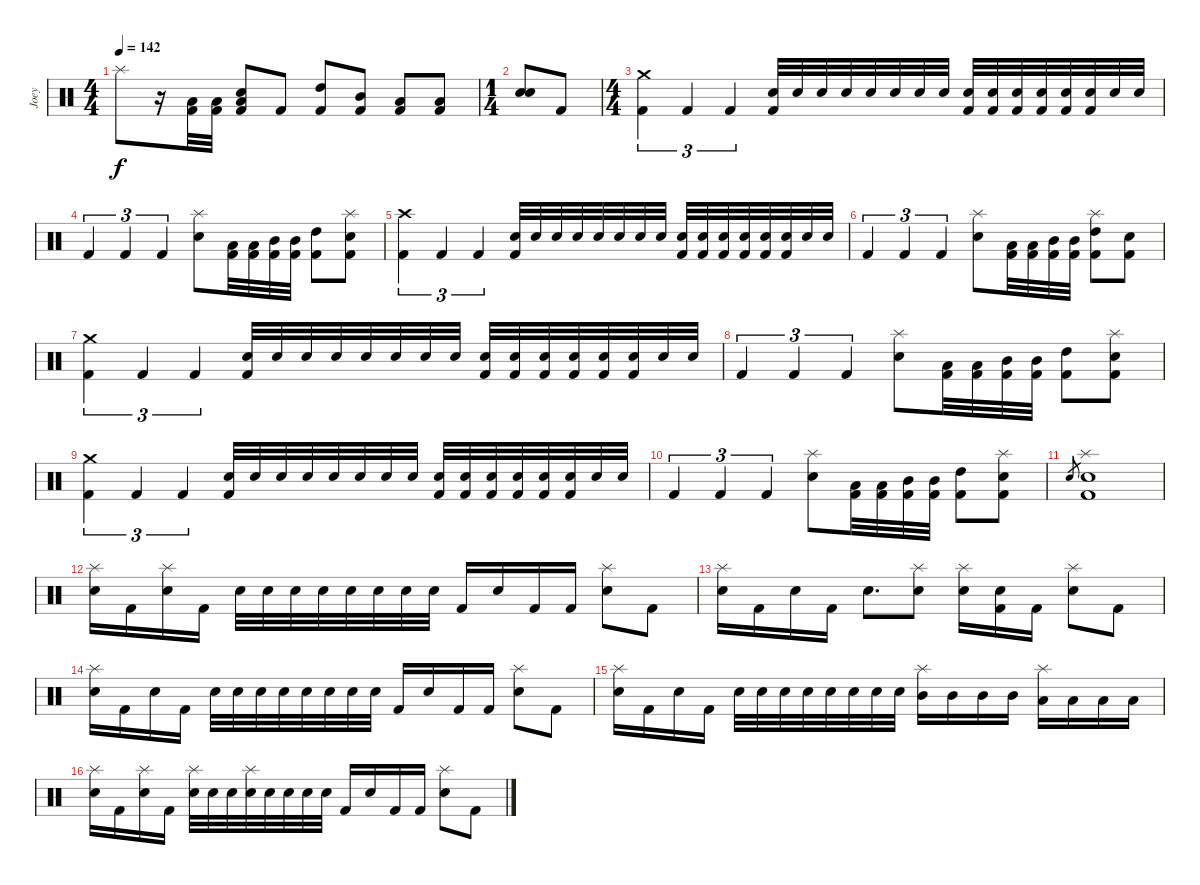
\track ("Joey" "Joey") {instrument percussion}
\staff {score}
\articulation defaults
\ts (4 4)
\tempo 142
\clef neutral
\ks c "Splash (hit)".8{dy f}
r.16 ("Low Tom (hit)" "Kick (hit) 2").32 ("Low Tom (hit)" "Kick (hit) 2").32 ("Snare (hit) 2" "Low Tom (hit)" "Kick (hit) 2").8 "Kick (hit) 2".8 ("High Tom (hit)" "Kick (hit) 2").8 ("Mid Tom (hit)" "Kick (hit) 2").8 ("Low Tom (hit)" "Kick (hit) 2").8 ("Low Tom (hit)" "Kick (hit) 2").8 |
\ts (1 4)
("Snare (hit) 2" "Snare (hit) 2").8 "Kick (hit) 2".8 |
\ts (4 4)
("Crash medium (hit)" "Kick (hit) 2").4{tu (3 2)} "Kick (hit) 2".4{tu (3 2)} "Kick (hit) 2".4{tu (3 2)} ("Snare (hit) 2" "Kick (hit) 2").32{volume 8} "Snare (hit) 2".32 "Snare (hit) 2".32 "Snare (hit) 2".32 "Snare (hit) 2".32 "Snare (hit) 2".32 "Snare (hit) 2".32 "Snare (hit) 2".32 ("Snare (hit) 2" "Kick (hit) 2").32 ("Snare (hit) 2" "Kick (hit) 2").32 ("Snare (hit) 2" "Kick (hit) 2").32 ("Snare (hit) 2" "Kick (hit) 2").32 ("Snare (hit) 2" "Kick (hit) 2").32 ("Snare (hit) 2" "Kick (hit) 2").32 "Snare (hit) 2".32 "Snare (hit) 2".32 |
"Kick (hit) 2".4{tu (3 2) volume 16} "Kick (hit) 2".4{tu (3 2)} "Kick (hit) 2".4{tu (3 2)} ("Splash (hit)" "Snare (hit) 2").8 ("Low Tom (hit)" "Kick (hit) 2").32 ("Low Tom (hit)" "Kick (hit) 2").32 ("Mid Tom (hit)" "Kick (hit) 2").32 ("Mid Tom (hit)" "Kick (hit) 2").32 ("High Tom (hit)" "Kick (hit) 2").8 ("Splash (hit)" "Snare (hit) 2" "Kick (hit) 2").8 |
("Crash high (hit)" "Kick (hit) 2").4{tu (3 2)} "Kick (hit) 2".4{tu (3 2)} "Kick (hit) 2".4{tu (3 2)} ("Snare (hit) 2" "Kick (hit) 2").32{volume 8} "Snare (hit) 2".32 "Snare (hit) 2".32 "Snare (hit) 2".32 "Snare (hit) 2".32 "Snare (hit) 2".32 "Snare (hit) 2".32 "Snare (hit) 2".32 ("Snare (hit) 2" "Kick (hit) 2").32 ("Snare (hit) 2" "Kick (hit) 2").32 ("Snare (hit) 2" "Kick (hit) 2").32 ("Snare (hit) 2" "Kick (hit) 2").32 ("Snare (hit) 2" "Kick (hit) 2").32 ("Snare (hit) 2" "Kick (hit) 2").32 "Snare (hit) 2".32 "Snare (hit) 2".32 |
"Kick (hit) 2".4{tu (3 2) volume 16} "Kick (hit) 2".4{tu (3 2)} "Kick (hit) 2".4{tu (3 2)} ("Splash (hit)" "Snare (hit) 2").8 ("Low Tom (hit)" "Kick (hit) 2").32 ("Low Tom (hit)" "Kick (hit) 2").32 ("Mid Tom (hit)" "Kick (hit) 2").32 ("Mid Tom (hit)" "Kick (hit) 2").32 ("Splash (hit)" "High Tom (hit)" "Kick (hit) 2").8 ("Snare (hit) 2" "Kick (hit) 2").8 |
("Crash medium (hit)" "Kick (hit) 2").4{tu (3 2)} "Kick (hit) 2".4{tu (3 2)} "Kick (hit) 2".4{tu (3 2)} ("Snare (hit) 2" "Kick (hit) 2").32{volume 8} "Snare (hit) 2".32 "Snare (hit) 2".32 "Snare (hit) 2".32 "Snare (hit) 2".32 "Snare (hit) 2".32 "Snare (hit) 2".32 "Snare (hit) 2".32 ("Snare (hit) 2" "Kick (hit) 2").32 ("Snare (hit) 2" "Kick (hit) 2").32 ("Snare (hit) 2" "Kick (hit) 2").32 ("Snare (hit) 2" "Kick (hit) 2").32 ("Snare (hit) 2" "Kick (hit) 2").32 ("Snare (hit) 2" "Kick (hit) 2").32 "Snare (hit) 2".32 "Snare (hit) 2".32 |
"Kick (hit) 2".4{tu (3 2) volume 16} "Kick (hit) 2".4{tu (3 2)} "Kick (hit) 2".4{tu (3 2)} ("Splash (hit)" "Snare (hit) 2").8 ("Low Tom (hit)" "Kick (hit) 2").32 ("Low Tom (hit)" "Kick (hit) 2").32 ("Mid Tom (hit)" "Kick (hit) 2").32 ("Mid Tom (hit)" "Kick (hit) 2").32 ("High Tom (hit)" "Kick (hit) 2").8 ("Splash (hit)" "Snare (hit) 2" "Kick (hit) 2").8 |
("Crash medium (hit)" "Kick (hit) 2").4{tu (3 2)} "Kick (hit) 2".4{tu (3 2)} "Kick (hit) 2".4{tu (3 2)} ("Snare (hit) 2" "Kick (hit) 2").32{volume 8} "Snare (hit) 2".32 "Snare (hit) 2".32 "Snare (hit) 2".32 "Snare (hit) 2".32 "Snare (hit) 2".32 "Snare (hit) 2".32 "Snare (hit) 2".32 ("Snare (hit) 2" "Kick (hit) 2").32 ("Snare (hit) 2" "Kick (hit) 2").32 ("Snare (hit) 2" "Kick (hit) 2").32 ("Snare (hit) 2" "Kick (hit) 2").32 ("Snare (hit) 2" "Kick (hit) 2").32 ("Snare (hit) 2" "Kick (hit) 2").32 "Snare (hit) 2".32 "Snare (hit) 2".32 |
"Kick (hit) 2".4{tu (3 2) volume 16} "Kick (hit) 2".4{tu (3 2)} "Kick (hit) 2".4{tu (3 2)} ("Splash (hit)" "Snare (hit) 2").8 ("Low Tom (hit)" "Kick (hit) 2").32 ("Low Tom (hit)" "Kick (hit) 2").32 ("Mid Tom (hit)" "Kick (hit) 2").32 ("Mid Tom (hit)" "Kick (hit) 2").32 ("High Tom (hit)" "Kick (hit) 2").8 ("Splash (hit)" "Snare (hit) 2" "Kick (hit) 2").8 |
"Snare (hit) 2".8{gr} ("Splash (hit)" "Snare (hit) 2" "Kick (hit) 2").1 |
("Splash (hit)" "Snare (hit) 2").16 "Kick (hit) 2".16 ("Splash (hit)" "Snare (hit) 2").16 "Kick (hit) 2".16 "Snare (hit) 2".32{volume 5} "Snare (hit) 2".32 "Snare (hit) 2".32 "Snare (hit) 2".32 "Snare (hit) 2".32 "Snare (hit) 2".32 "Snare (hit) 2".32 "Snare (hit) 2".32 "Kick (hit) 2".16{volume 16} "Snare (hit) 2".16 "Kick (hit) 2".16 "Kick (hit) 2".16 ("Splash (hit)" "Snare (hit) 2").8 "Kick (hit) 2".8 |
("Splash (hit)" "Snare (hit) 2").16 "Kick (hit) 2".16 "Snare (hit) 2".16 "Kick (hit) 2".16 "Snare (hit) 2".8{d} ("Splash (hit)" "Snare (hit) 2").8 ("Splash (hit)" "Snare (hit) 2").16 ("Snare (hit) 2" "Kick (hit) 2").16 "Kick (hit) 2".16 ("Splash (hit)" "Snare (hit) 2").8 "Kick (hit) 2".8 |
("Splash (hit)" "Snare (hit) 2").16 "Kick (hit) 2".16 "Snare (hit) 2".16 "Kick (hit) 2".16 "Snare (hit) 2".32{volume 5} "Snare (hit) 2".32 "Snare (hit) 2".32 "Snare (hit) 2".32 "Snare (hit) 2".32 "Snare (hit) 2".32 "Snare (hit) 2".32 "Snare (hit) 2".32 "Kick (hit) 2".16{volume 16} "Snare (hit) 2".16 "Kick (hit) 2".16 "Kick (hit) 2".16 ("Splash (hit)" "Snare (hit) 2").8 "Kick (hit) 2".8 |
("Splash (hit)" "Snare (hit) 2").16 "Kick (hit) 2".16 "Snare (hit) 2".16 "Kick (hit) 2".16 "Snare (hit) 2".32{volume 5} "Snare (hit) 2".32 "Snare (hit) 2".32 "Snare (hit) 2".32 "Snare (hit) 2".32 "Snare (hit) 2".32 "Snare (hit) 2".32 "Snare (hit) 2".32 ("Splash (hit)" "Mid Tom (hit)").16{volume 16} "Mid Tom (hit)".16 "Mid Tom (hit)".16 "Mid Tom (hit)".16 ("Splash (hit)" "Low Tom (hit)").16 "Low Tom (hit)".16 "Low Tom (hit)".16 "Low Tom (hit)".16 |
("Splash (hit)" "Snare (hit) 2").16 "Kick (hit) 2".16 ("Splash (hit)" "Snare (hit) 2").16 "Kick (hit) 2".16 ("Splash (hit)" "Snare (hit) 2").32{volume 5} "Snare (hit) 2".32 "Snare (hit) 2".32 ("Splash (hit)" "Snare (hit) 2").32 "Snare (hit) 2".32 "Snare (hit) 2".32 "Snare (hit) 2".32 "Snare (hit) 2".32 "Kick (hit) 2".16{volume 16} "Snare (hit) 2".16 "Kick (hit) 2".16 "Kick (hit) 2".16 ("Splash (hit)" "Snare (hit) 2").8 "Kick (hit) 2".8
